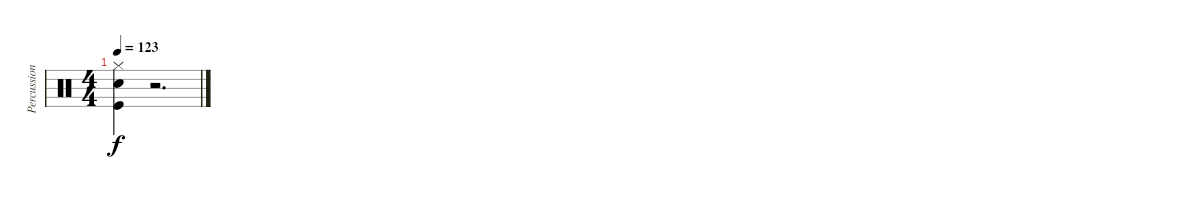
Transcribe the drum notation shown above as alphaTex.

\track ("Percussion" "Percussion") {instrument percussion}
\staff {score}
\articulation defaults
\ts (4 4)
\tempo 123
\clef neutral
\ks c
("Hi-Hat (closed)" "Snare (hit) 2" "Kick (hit)").4{dy f} r.2{d}
